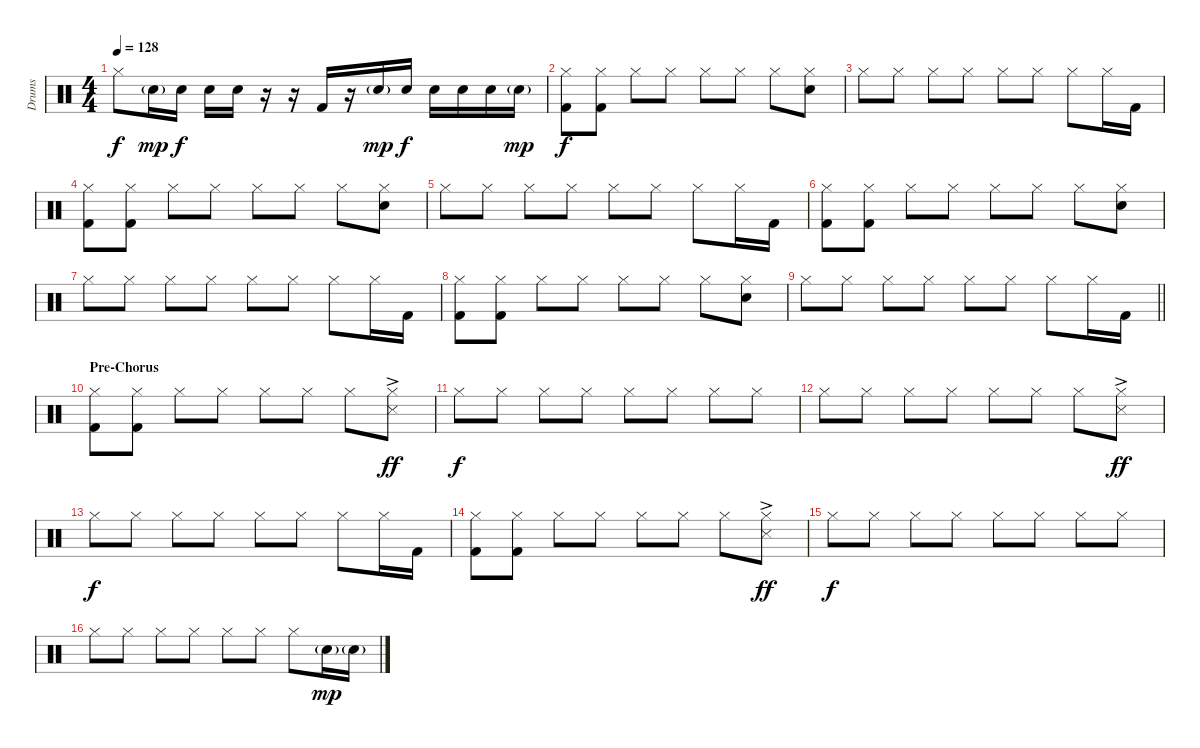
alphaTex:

\track ("Drums" "Drums") {instrument percussion}
\staff {score}
\articulation defaults
\ts (4 4)
\tempo 128
\clef neutral
\ks c "Hi-Hat (closed)".8{dy f} "Electric Snare (hit)"{g}.16{dy mp} "Electric Snare (hit)".16{dy f} "Electric Snare (hit)".16 "Electric Snare (hit)".16
r.16 r.16 "Kick (hit) 2".16 r.16 "Electric Snare (hit)"{g}.16{dy mp} "Electric Snare (hit)".16{dy f} "Electric Snare (hit)".16 "Electric Snare (hit)".16 "Electric Snare (hit)".16 "Electric Snare (hit)"{g}.16{dy mp} |
("Hi-Hat (closed)" "Kick (hit) 2").8{dy f} ("Hi-Hat (closed)" "Kick (hit) 2").8 "Hi-Hat (closed)".8 "Hi-Hat (closed)".8 "Hi-Hat (closed)".8 "Hi-Hat (closed)".8 "Hi-Hat (closed)".8 ("Hi-Hat (closed)" "Electric Snare (hit)").8 |
"Hi-Hat (closed)".8 "Hi-Hat (closed)".8 "Hi-Hat (closed)".8 "Hi-Hat (closed)".8 "Hi-Hat (closed)".8 "Hi-Hat (closed)".8 "Hi-Hat (closed)".8 "Hi-Hat (closed)".16 "Kick (hit) 2".16 |
("Hi-Hat (closed)" "Kick (hit) 2").8 ("Hi-Hat (closed)" "Kick (hit) 2").8 "Hi-Hat (closed)".8 "Hi-Hat (closed)".8 "Hi-Hat (closed)".8 "Hi-Hat (closed)".8 "Hi-Hat (closed)".8 ("Hi-Hat (closed)" "Electric Snare (hit)").8 |
"Hi-Hat (closed)".8 "Hi-Hat (closed)".8 "Hi-Hat (closed)".8 "Hi-Hat (closed)".8 "Hi-Hat (closed)".8 "Hi-Hat (closed)".8 "Hi-Hat (closed)".8 "Hi-Hat (closed)".16 "Kick (hit) 2".16 |
("Hi-Hat (closed)" "Kick (hit) 2").8 ("Hi-Hat (closed)" "Kick (hit) 2").8 "Hi-Hat (closed)".8 "Hi-Hat (closed)".8 "Hi-Hat (closed)".8 "Hi-Hat (closed)".8 "Hi-Hat (closed)".8 ("Hi-Hat (closed)" "Electric Snare (hit)").8 |
"Hi-Hat (closed)".8 "Hi-Hat (closed)".8 "Hi-Hat (closed)".8 "Hi-Hat (closed)".8 "Hi-Hat (closed)".8 "Hi-Hat (closed)".8 "Hi-Hat (closed)".8 "Hi-Hat (closed)".16 "Kick (hit) 2".16 |
("Hi-Hat (closed)" "Kick (hit) 2").8 ("Hi-Hat (closed)" "Kick (hit) 2").8 "Hi-Hat (closed)".8 "Hi-Hat (closed)".8 "Hi-Hat (closed)".8 "Hi-Hat (closed)".8 "Hi-Hat (closed)".8 ("Hi-Hat (closed)" "Electric Snare (hit)").8 |
\barLineRight lightlight "Hi-Hat (closed)".8 "Hi-Hat (closed)".8 "Hi-Hat (closed)".8 "Hi-Hat (closed)".8 "Hi-Hat (closed)".8 "Hi-Hat (closed)".8 "Hi-Hat (closed)".8 "Hi-Hat (closed)".16 "Kick (hit) 2".16
|
\section ("" "Pre-Chorus")
("Hi-Hat (closed)" "Kick (hit) 2").8 ("Hi-Hat (closed)" "Kick (hit) 2").8 "Hi-Hat (closed)".8 "Hi-Hat (closed)".8 "Hi-Hat (closed)".8 "Hi-Hat (closed)".8 "Hi-Hat (closed)".8 ("Hi-Hat (closed)" "Snare (side stick) 3"{ac}).8{dy ff} |
"Hi-Hat (closed)".8{dy f} "Hi-Hat (closed)".8 "Hi-Hat (closed)".8 "Hi-Hat (closed)".8 "Hi-Hat (closed)".8 "Hi-Hat (closed)".8 "Hi-Hat (closed)".8 "Hi-Hat (closed)".8 |
"Hi-Hat (closed)".8 "Hi-Hat (closed)".8 "Hi-Hat (closed)".8 "Hi-Hat (closed)".8 "Hi-Hat (closed)".8 "Hi-Hat (closed)".8 "Hi-Hat (closed)".8 ("Hi-Hat (closed)" "Snare (side stick) 3"{ac}).8{dy ff} |
"Hi-Hat (closed)".8{dy f} "Hi-Hat (closed)".8 "Hi-Hat (closed)".8 "Hi-Hat (closed)".8 "Hi-Hat (closed)".8 "Hi-Hat (closed)".8 "Hi-Hat (closed)".8 "Hi-Hat (closed)".16 "Kick (hit) 2".16 |
("Hi-Hat (closed)" "Kick (hit) 2").8 ("Hi-Hat (closed)" "Kick (hit) 2").8 "Hi-Hat (closed)".8 "Hi-Hat (closed)".8 "Hi-Hat (closed)".8 "Hi-Hat (closed)".8 "Hi-Hat (closed)".8 ("Hi-Hat (closed)" "Snare (side stick) 3"{ac}).8{dy ff} |
"Hi-Hat (closed)".8{dy f} "Hi-Hat (closed)".8 "Hi-Hat (closed)".8 "Hi-Hat (closed)".8 "Hi-Hat (closed)".8 "Hi-Hat (closed)".8 "Hi-Hat (closed)".8 "Hi-Hat (closed)".8 |
"Hi-Hat (closed)".8 "Hi-Hat (closed)".8 "Hi-Hat (closed)".8 "Hi-Hat (closed)".8 "Hi-Hat (closed)".8 "Hi-Hat (closed)".8 "Hi-Hat (closed)".8 "Electric Snare (hit)"{g}.16{dy mp} "Electric Snare (hit)"{g}.16
